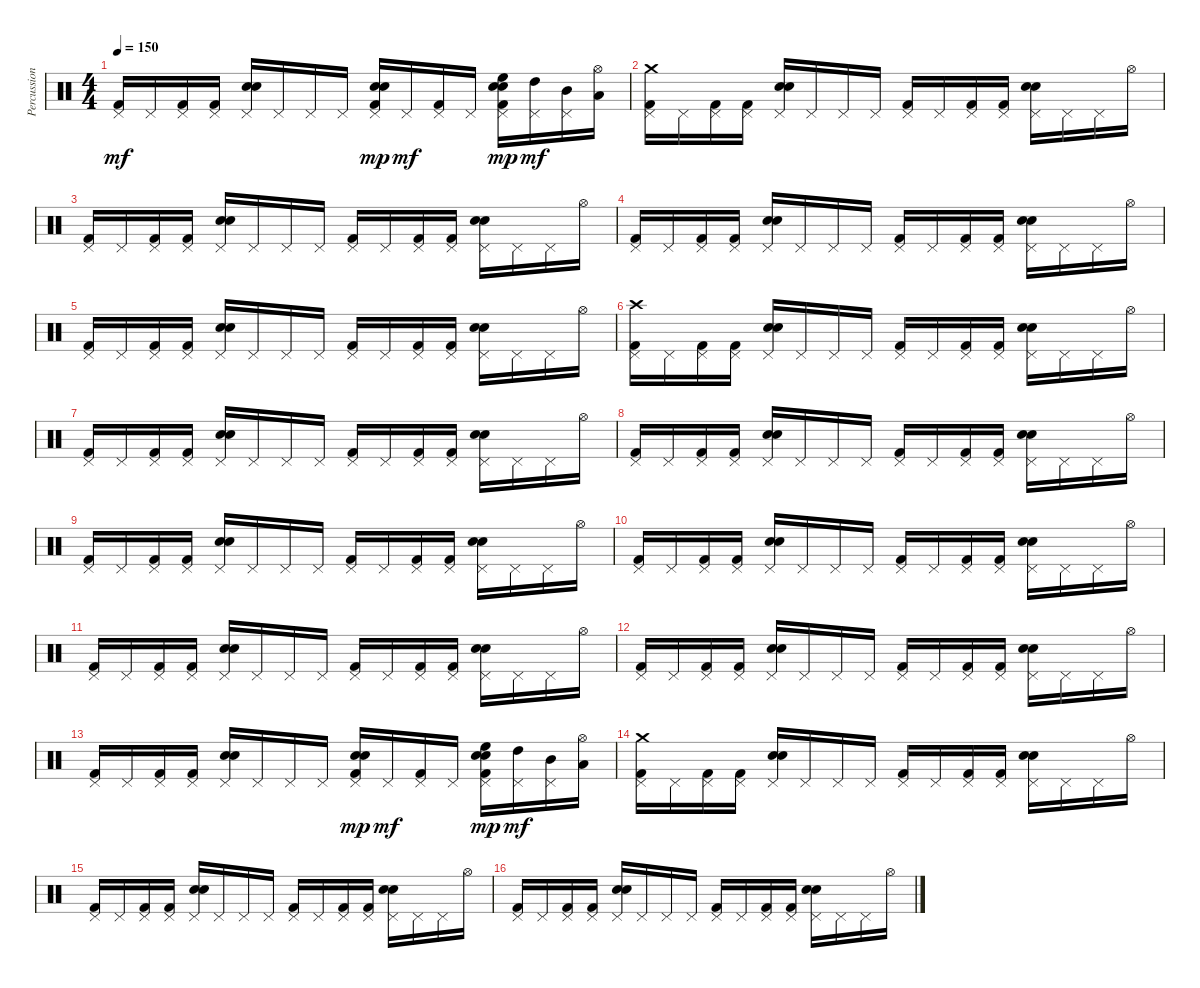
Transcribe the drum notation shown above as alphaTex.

\track ("Percussion (Power Kit)" "Percussion") {instrument percussion}
\staff {score}
\articulation defaults
\ts (4 4)
\tempo 150
\clef neutral
\ks c
("Kick (hit) 2" "Pedal Hi-Hat (hit)").16{dy mf} "Pedal Hi-Hat (hit)".16 ("Pedal Hi-Hat (hit)" "Kick (hit) 2").16 ("Pedal Hi-Hat (hit)" "Kick (hit) 2").16 ("Electric Snare (hit)" "Snare (hit) 2" "Pedal Hi-Hat (hit)").16 "Pedal Hi-Hat (hit)".16 "Pedal Hi-Hat (hit)".16 "Pedal Hi-Hat (hit)".16 ("Pedal Hi-Hat (hit)" "Electric Snare (hit)" "Kick (hit) 2" "Snare (hit) 2").16{dy mp} "Pedal Hi-Hat (hit)".16{dy mf} ("Pedal Hi-Hat (hit)" "Kick (hit) 2").16 "Pedal Hi-Hat (hit)".16 ("Pedal Hi-Hat (hit)" "Kick (hit) 2" "Electric Snare (hit)" "Snare (hit) 2" "High Floor Tom (hit)").16{dy mp} ("Pedal Hi-Hat (hit)" "High Tom (hit)").16{dy mf} ("Pedal Hi-Hat (hit)" "Mid Tom (hit)").16 ("Hi-Hat (open)" "Low Tom (hit)").16 |
("Kick (hit) 2" "Pedal Hi-Hat (hit)" "Crash medium (hit)").16 "Pedal Hi-Hat (hit)".16 ("Pedal Hi-Hat (hit)" "Kick (hit) 2").16 ("Pedal Hi-Hat (hit)" "Kick (hit) 2").16 ("Electric Snare (hit)" "Snare (hit) 2" "Pedal Hi-Hat (hit)").16 "Pedal Hi-Hat (hit)".16 "Pedal Hi-Hat (hit)".16 "Pedal Hi-Hat (hit)".16 ("Kick (hit) 2" "Pedal Hi-Hat (hit)").16 "Pedal Hi-Hat (hit)".16 ("Pedal Hi-Hat (hit)" "Kick (hit) 2").16 ("Pedal Hi-Hat (hit)" "Kick (hit) 2").16 ("Electric Snare (hit)" "Snare (hit) 2" "Pedal Hi-Hat (hit)").16 "Pedal Hi-Hat (hit)".16 "Pedal Hi-Hat (hit)".16 "Hi-Hat (open)".16 |
("Kick (hit) 2" "Pedal Hi-Hat (hit)").16 "Pedal Hi-Hat (hit)".16 ("Pedal Hi-Hat (hit)" "Kick (hit) 2").16 ("Pedal Hi-Hat (hit)" "Kick (hit) 2").16 ("Electric Snare (hit)" "Snare (hit) 2" "Pedal Hi-Hat (hit)").16 "Pedal Hi-Hat (hit)".16 "Pedal Hi-Hat (hit)".16 "Pedal Hi-Hat (hit)".16 ("Kick (hit) 2" "Pedal Hi-Hat (hit)").16 "Pedal Hi-Hat (hit)".16 ("Pedal Hi-Hat (hit)" "Kick (hit) 2").16 ("Pedal Hi-Hat (hit)" "Kick (hit) 2").16 ("Electric Snare (hit)" "Snare (hit) 2" "Pedal Hi-Hat (hit)").16 "Pedal Hi-Hat (hit)".16 "Pedal Hi-Hat (hit)".16 "Hi-Hat (open)".16 |
("Kick (hit) 2" "Pedal Hi-Hat (hit)").16 "Pedal Hi-Hat (hit)".16 ("Pedal Hi-Hat (hit)" "Kick (hit) 2").16 ("Pedal Hi-Hat (hit)" "Kick (hit) 2").16 ("Electric Snare (hit)" "Snare (hit) 2" "Pedal Hi-Hat (hit)").16 "Pedal Hi-Hat (hit)".16 "Pedal Hi-Hat (hit)".16 "Pedal Hi-Hat (hit)".16 ("Kick (hit) 2" "Pedal Hi-Hat (hit)").16 "Pedal Hi-Hat (hit)".16 ("Pedal Hi-Hat (hit)" "Kick (hit) 2").16 ("Pedal Hi-Hat (hit)" "Kick (hit) 2").16 ("Electric Snare (hit)" "Snare (hit) 2" "Pedal Hi-Hat (hit)").16 "Pedal Hi-Hat (hit)".16 "Pedal Hi-Hat (hit)".16 "Hi-Hat (open)".16 |
("Kick (hit) 2" "Pedal Hi-Hat (hit)").16 "Pedal Hi-Hat (hit)".16 ("Pedal Hi-Hat (hit)" "Kick (hit) 2").16 ("Pedal Hi-Hat (hit)" "Kick (hit) 2").16 ("Electric Snare (hit)" "Snare (hit) 2" "Pedal Hi-Hat (hit)").16 "Pedal Hi-Hat (hit)".16 "Pedal Hi-Hat (hit)".16 "Pedal Hi-Hat (hit)".16 ("Kick (hit) 2" "Pedal Hi-Hat (hit)").16 "Pedal Hi-Hat (hit)".16 ("Pedal Hi-Hat (hit)" "Kick (hit) 2").16 ("Pedal Hi-Hat (hit)" "Kick (hit) 2").16 ("Electric Snare (hit)" "Snare (hit) 2" "Pedal Hi-Hat (hit)").16 "Pedal Hi-Hat (hit)".16 "Pedal Hi-Hat (hit)".16 "Hi-Hat (open)".16 |
("Kick (hit) 2" "Pedal Hi-Hat (hit)" "Crash high (hit)").16 "Pedal Hi-Hat (hit)".16 ("Pedal Hi-Hat (hit)" "Kick (hit) 2").16 ("Pedal Hi-Hat (hit)" "Kick (hit) 2").16 ("Electric Snare (hit)" "Snare (hit) 2" "Pedal Hi-Hat (hit)").16 "Pedal Hi-Hat (hit)".16 "Pedal Hi-Hat (hit)".16 "Pedal Hi-Hat (hit)".16 ("Kick (hit) 2" "Pedal Hi-Hat (hit)").16 "Pedal Hi-Hat (hit)".16 ("Pedal Hi-Hat (hit)" "Kick (hit) 2").16 ("Pedal Hi-Hat (hit)" "Kick (hit) 2").16 ("Electric Snare (hit)" "Snare (hit) 2" "Pedal Hi-Hat (hit)").16 "Pedal Hi-Hat (hit)".16 "Pedal Hi-Hat (hit)".16 "Hi-Hat (open)".16 |
("Kick (hit) 2" "Pedal Hi-Hat (hit)").16 "Pedal Hi-Hat (hit)".16 ("Pedal Hi-Hat (hit)" "Kick (hit) 2").16 ("Pedal Hi-Hat (hit)" "Kick (hit) 2").16 ("Electric Snare (hit)" "Snare (hit) 2" "Pedal Hi-Hat (hit)").16 "Pedal Hi-Hat (hit)".16 "Pedal Hi-Hat (hit)".16 "Pedal Hi-Hat (hit)".16 ("Kick (hit) 2" "Pedal Hi-Hat (hit)").16 "Pedal Hi-Hat (hit)".16 ("Pedal Hi-Hat (hit)" "Kick (hit) 2").16 ("Pedal Hi-Hat (hit)" "Kick (hit) 2").16 ("Electric Snare (hit)" "Snare (hit) 2" "Pedal Hi-Hat (hit)").16 "Pedal Hi-Hat (hit)".16 "Pedal Hi-Hat (hit)".16 "Hi-Hat (open)".16 |
("Kick (hit) 2" "Pedal Hi-Hat (hit)").16 "Pedal Hi-Hat (hit)".16 ("Pedal Hi-Hat (hit)" "Kick (hit) 2").16 ("Pedal Hi-Hat (hit)" "Kick (hit) 2").16 ("Electric Snare (hit)" "Snare (hit) 2" "Pedal Hi-Hat (hit)").16 "Pedal Hi-Hat (hit)".16 "Pedal Hi-Hat (hit)".16 "Pedal Hi-Hat (hit)".16 ("Kick (hit) 2" "Pedal Hi-Hat (hit)").16 "Pedal Hi-Hat (hit)".16 ("Pedal Hi-Hat (hit)" "Kick (hit) 2").16 ("Pedal Hi-Hat (hit)" "Kick (hit) 2").16 ("Electric Snare (hit)" "Snare (hit) 2" "Pedal Hi-Hat (hit)").16 "Pedal Hi-Hat (hit)".16 "Pedal Hi-Hat (hit)".16 "Hi-Hat (open)".16 |
("Kick (hit) 2" "Pedal Hi-Hat (hit)").16 "Pedal Hi-Hat (hit)".16 ("Pedal Hi-Hat (hit)" "Kick (hit) 2").16 ("Pedal Hi-Hat (hit)" "Kick (hit) 2").16 ("Electric Snare (hit)" "Snare (hit) 2" "Pedal Hi-Hat (hit)").16 "Pedal Hi-Hat (hit)".16 "Pedal Hi-Hat (hit)".16 "Pedal Hi-Hat (hit)".16 ("Kick (hit) 2" "Pedal Hi-Hat (hit)").16 "Pedal Hi-Hat (hit)".16 ("Pedal Hi-Hat (hit)" "Kick (hit) 2").16 ("Pedal Hi-Hat (hit)" "Kick (hit) 2").16 ("Electric Snare (hit)" "Snare (hit) 2" "Pedal Hi-Hat (hit)").16 "Pedal Hi-Hat (hit)".16 "Pedal Hi-Hat (hit)".16 "Hi-Hat (open)".16 |
("Kick (hit) 2" "Pedal Hi-Hat (hit)").16 "Pedal Hi-Hat (hit)".16 ("Pedal Hi-Hat (hit)" "Kick (hit) 2").16 ("Pedal Hi-Hat (hit)" "Kick (hit) 2").16 ("Electric Snare (hit)" "Snare (hit) 2" "Pedal Hi-Hat (hit)").16 "Pedal Hi-Hat (hit)".16 "Pedal Hi-Hat (hit)".16 "Pedal Hi-Hat (hit)".16 ("Kick (hit) 2" "Pedal Hi-Hat (hit)").16 "Pedal Hi-Hat (hit)".16 ("Pedal Hi-Hat (hit)" "Kick (hit) 2").16 ("Pedal Hi-Hat (hit)" "Kick (hit) 2").16 ("Electric Snare (hit)" "Snare (hit) 2" "Pedal Hi-Hat (hit)").16 "Pedal Hi-Hat (hit)".16 "Pedal Hi-Hat (hit)".16 "Hi-Hat (open)".16 |
("Kick (hit) 2" "Pedal Hi-Hat (hit)").16 "Pedal Hi-Hat (hit)".16 ("Pedal Hi-Hat (hit)" "Kick (hit) 2").16 ("Pedal Hi-Hat (hit)" "Kick (hit) 2").16 ("Electric Snare (hit)" "Snare (hit) 2" "Pedal Hi-Hat (hit)").16 "Pedal Hi-Hat (hit)".16 "Pedal Hi-Hat (hit)".16 "Pedal Hi-Hat (hit)".16 ("Kick (hit) 2" "Pedal Hi-Hat (hit)").16 "Pedal Hi-Hat (hit)".16 ("Pedal Hi-Hat (hit)" "Kick (hit) 2").16 ("Pedal Hi-Hat (hit)" "Kick (hit) 2").16 ("Electric Snare (hit)" "Snare (hit) 2" "Pedal Hi-Hat (hit)").16 "Pedal Hi-Hat (hit)".16 "Pedal Hi-Hat (hit)".16 "Hi-Hat (open)".16 |
("Kick (hit) 2" "Pedal Hi-Hat (hit)").16 "Pedal Hi-Hat (hit)".16 ("Pedal Hi-Hat (hit)" "Kick (hit) 2").16 ("Pedal Hi-Hat (hit)" "Kick (hit) 2").16 ("Electric Snare (hit)" "Snare (hit) 2" "Pedal Hi-Hat (hit)").16 "Pedal Hi-Hat (hit)".16 "Pedal Hi-Hat (hit)".16 "Pedal Hi-Hat (hit)".16 ("Kick (hit) 2" "Pedal Hi-Hat (hit)").16 "Pedal Hi-Hat (hit)".16 ("Pedal Hi-Hat (hit)" "Kick (hit) 2").16 ("Pedal Hi-Hat (hit)" "Kick (hit) 2").16 ("Electric Snare (hit)" "Snare (hit) 2" "Pedal Hi-Hat (hit)").16 "Pedal Hi-Hat (hit)".16 "Pedal Hi-Hat (hit)".16 "Hi-Hat (open)".16 |
("Kick (hit) 2" "Pedal Hi-Hat (hit)").16 "Pedal Hi-Hat (hit)".16 ("Pedal Hi-Hat (hit)" "Kick (hit) 2").16 ("Pedal Hi-Hat (hit)" "Kick (hit) 2").16 ("Electric Snare (hit)" "Snare (hit) 2" "Pedal Hi-Hat (hit)").16 "Pedal Hi-Hat (hit)".16 "Pedal Hi-Hat (hit)".16 "Pedal Hi-Hat (hit)".16 ("Pedal Hi-Hat (hit)" "Electric Snare (hit)" "Kick (hit) 2" "Snare (hit) 2").16{dy mp} "Pedal Hi-Hat (hit)".16{dy mf} ("Pedal Hi-Hat (hit)" "Kick (hit) 2").16 "Pedal Hi-Hat (hit)".16 ("Pedal Hi-Hat (hit)" "Kick (hit) 2" "Electric Snare (hit)" "Snare (hit) 2" "High Floor Tom (hit)").16{dy mp} ("Pedal Hi-Hat (hit)" "High Tom (hit)").16{dy mf} ("Pedal Hi-Hat (hit)" "Mid Tom (hit)").16 ("Hi-Hat (open)" "Low Tom (hit)").16 |
("Kick (hit) 2" "Pedal Hi-Hat (hit)" "Crash medium (hit)").16 "Pedal Hi-Hat (hit)".16 ("Pedal Hi-Hat (hit)" "Kick (hit) 2").16 ("Pedal Hi-Hat (hit)" "Kick (hit) 2").16 ("Electric Snare (hit)" "Snare (hit) 2" "Pedal Hi-Hat (hit)").16 "Pedal Hi-Hat (hit)".16 "Pedal Hi-Hat (hit)".16 "Pedal Hi-Hat (hit)".16 ("Kick (hit) 2" "Pedal Hi-Hat (hit)").16 "Pedal Hi-Hat (hit)".16 ("Pedal Hi-Hat (hit)" "Kick (hit) 2").16 ("Pedal Hi-Hat (hit)" "Kick (hit) 2").16 ("Electric Snare (hit)" "Snare (hit) 2" "Pedal Hi-Hat (hit)").16 "Pedal Hi-Hat (hit)".16 "Pedal Hi-Hat (hit)".16 "Hi-Hat (open)".16 |
("Kick (hit) 2" "Pedal Hi-Hat (hit)").16 "Pedal Hi-Hat (hit)".16 ("Pedal Hi-Hat (hit)" "Kick (hit) 2").16 ("Pedal Hi-Hat (hit)" "Kick (hit) 2").16 ("Electric Snare (hit)" "Snare (hit) 2" "Pedal Hi-Hat (hit)").16 "Pedal Hi-Hat (hit)".16 "Pedal Hi-Hat (hit)".16 "Pedal Hi-Hat (hit)".16 ("Kick (hit) 2" "Pedal Hi-Hat (hit)").16 "Pedal Hi-Hat (hit)".16 ("Pedal Hi-Hat (hit)" "Kick (hit) 2").16 ("Pedal Hi-Hat (hit)" "Kick (hit) 2").16 ("Electric Snare (hit)" "Snare (hit) 2" "Pedal Hi-Hat (hit)").16 "Pedal Hi-Hat (hit)".16 "Pedal Hi-Hat (hit)".16 "Hi-Hat (open)".16 |
("Kick (hit) 2" "Pedal Hi-Hat (hit)").16 "Pedal Hi-Hat (hit)".16 ("Pedal Hi-Hat (hit)" "Kick (hit) 2").16 ("Pedal Hi-Hat (hit)" "Kick (hit) 2").16 ("Electric Snare (hit)" "Snare (hit) 2" "Pedal Hi-Hat (hit)").16 "Pedal Hi-Hat (hit)".16 "Pedal Hi-Hat (hit)".16 "Pedal Hi-Hat (hit)".16 ("Kick (hit) 2" "Pedal Hi-Hat (hit)").16 "Pedal Hi-Hat (hit)".16 ("Pedal Hi-Hat (hit)" "Kick (hit) 2").16 ("Pedal Hi-Hat (hit)" "Kick (hit) 2").16 ("Electric Snare (hit)" "Snare (hit) 2" "Pedal Hi-Hat (hit)").16 "Pedal Hi-Hat (hit)".16 "Pedal Hi-Hat (hit)".16 "Hi-Hat (open)".16
